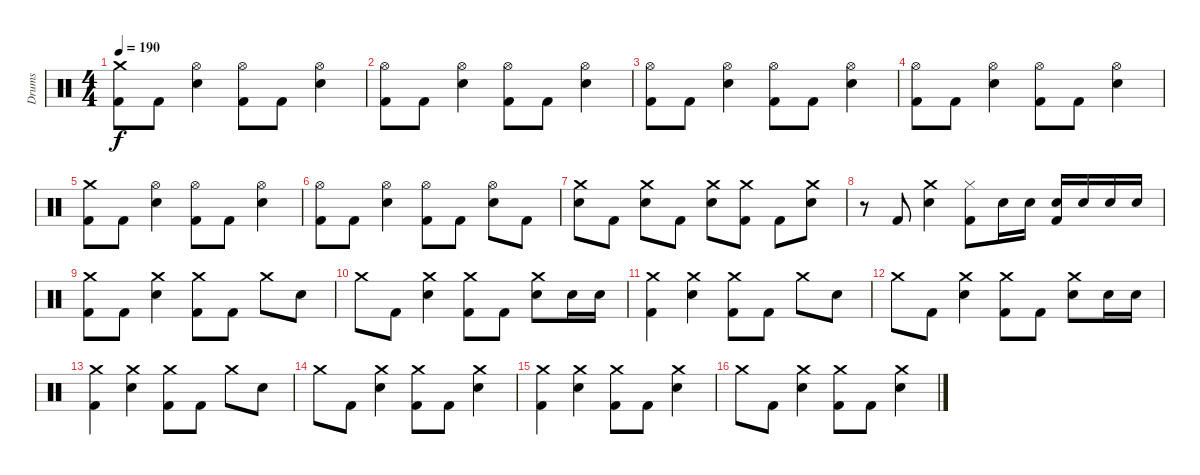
\track ("Drums" "Drums") {instrument percussion}
\staff {score}
\articulation defaults
\ts (4 4)
\tempo 190
\clef neutral
\ks c
("Crash medium (hit)" "Kick (hit) 2").8{dy f} "Kick (hit) 2".8 ("Hi-Hat (open)" "Snare (hit) 2").4 ("Hi-Hat (open)" "Kick (hit) 2").8 "Kick (hit) 2".8 ("Hi-Hat (open)" "Snare (hit) 2").4 |
("Hi-Hat (open)" "Kick (hit) 2").8 "Kick (hit) 2".8 ("Hi-Hat (open)" "Snare (hit) 2").4 ("Hi-Hat (open)" "Kick (hit) 2").8 "Kick (hit) 2".8 ("Hi-Hat (open)" "Snare (hit) 2").4 |
("Hi-Hat (open)" "Kick (hit) 2").8 "Kick (hit) 2".8 ("Hi-Hat (open)" "Snare (hit) 2").4 ("Hi-Hat (open)" "Kick (hit) 2").8 "Kick (hit) 2".8 ("Hi-Hat (open)" "Snare (hit) 2").4 |
("Hi-Hat (open)" "Kick (hit) 2").8 "Kick (hit) 2".8 ("Hi-Hat (open)" "Snare (hit) 2").4 ("Hi-Hat (open)" "Kick (hit) 2").8 "Kick (hit) 2".8 ("Hi-Hat (open)" "Snare (hit) 2").4 |
("Crash medium (hit)" "Kick (hit) 2").8 "Kick (hit) 2".8 ("Hi-Hat (open)" "Snare (hit) 2").4 ("Hi-Hat (open)" "Kick (hit) 2").8 "Kick (hit) 2".8 ("Hi-Hat (open)" "Snare (hit) 2").4 |
("Hi-Hat (open)" "Kick (hit) 2").8 "Kick (hit) 2".8 ("Hi-Hat (open)" "Snare (hit) 2").4 ("Hi-Hat (open)" "Kick (hit) 2").8 "Kick (hit) 2".8 ("Hi-Hat (open)" "Snare (hit) 2").8 "Kick (hit) 2".8 |
("Crash medium (hit)" "Snare (hit) 2").8 "Kick (hit) 2".8 ("Crash medium (hit)" "Snare (hit) 2").8 "Kick (hit) 2".8 ("Crash medium (hit)" "Snare (hit) 2").8 ("Crash medium (hit)" "Kick (hit) 2").8 "Kick (hit) 2".8 ("Crash medium (hit)" "Snare (hit) 2").8 |
r.8 "Kick (hit) 2".8 ("Crash medium (hit)" "Snare (hit) 2").4 ("Hi-Hat (closed)" "Kick (hit) 2").8 "Snare (hit) 2".16 "Snare (hit) 2".16 ("Snare (hit) 2" "Kick (hit) 2").16 "Snare (hit) 2".16 "Snare (hit) 2".16 "Snare (hit) 2".16 |
("Crash medium (hit)" "Kick (hit) 2").8 "Kick (hit) 2".8 ("Crash medium (hit)" "Snare (hit) 2").4 ("Crash medium (hit)" "Kick (hit) 2").8 "Kick (hit) 2".8 "Crash medium (hit)".8 "Snare (hit) 2".8 |
"Crash medium (hit)".8 "Kick (hit) 2".8 ("Crash medium (hit)" "Snare (hit) 2").4 ("Crash medium (hit)" "Kick (hit) 2").8 "Kick (hit) 2".8 ("Crash medium (hit)" "Snare (hit) 2").8 "Snare (hit) 2".16 "Snare (hit) 2".16 |
("Crash medium (hit)" "Kick (hit) 2").4 ("Crash medium (hit)" "Snare (hit) 2").4 ("Crash medium (hit)" "Kick (hit) 2").8 "Kick (hit) 2".8 "Crash medium (hit)".8 "Snare (hit) 2".8 |
"Crash medium (hit)".8 "Kick (hit) 2".8 ("Crash medium (hit)" "Snare (hit) 2").4 ("Crash medium (hit)" "Kick (hit) 2").8 "Kick (hit) 2".8 ("Crash medium (hit)" "Snare (hit) 2").8 "Snare (hit) 2".16 "Snare (hit) 2".16 |
("Crash medium (hit)" "Kick (hit) 2").4 ("Crash medium (hit)" "Snare (hit) 2").4 ("Crash medium (hit)" "Kick (hit) 2").8 "Kick (hit) 2".8 "Crash medium (hit)".8 "Snare (hit) 2".8 |
"Crash medium (hit)".8 "Kick (hit) 2".8 ("Crash medium (hit)" "Snare (hit) 2").4 ("Crash medium (hit)" "Kick (hit) 2").8 "Kick (hit) 2".8 ("Crash medium (hit)" "Snare (hit) 2").4 |
("Crash medium (hit)" "Kick (hit) 2").4 ("Crash medium (hit)" "Snare (hit) 2").4 ("Crash medium (hit)" "Kick (hit) 2").8 "Kick (hit) 2".8 ("Crash medium (hit)" "Snare (hit) 2").4 |
"Crash medium (hit)".8 "Kick (hit) 2".8 ("Crash medium (hit)" "Snare (hit) 2").4 ("Crash medium (hit)" "Kick (hit) 2").8 "Kick (hit) 2".8 ("Crash medium (hit)" "Snare (hit) 2").4
